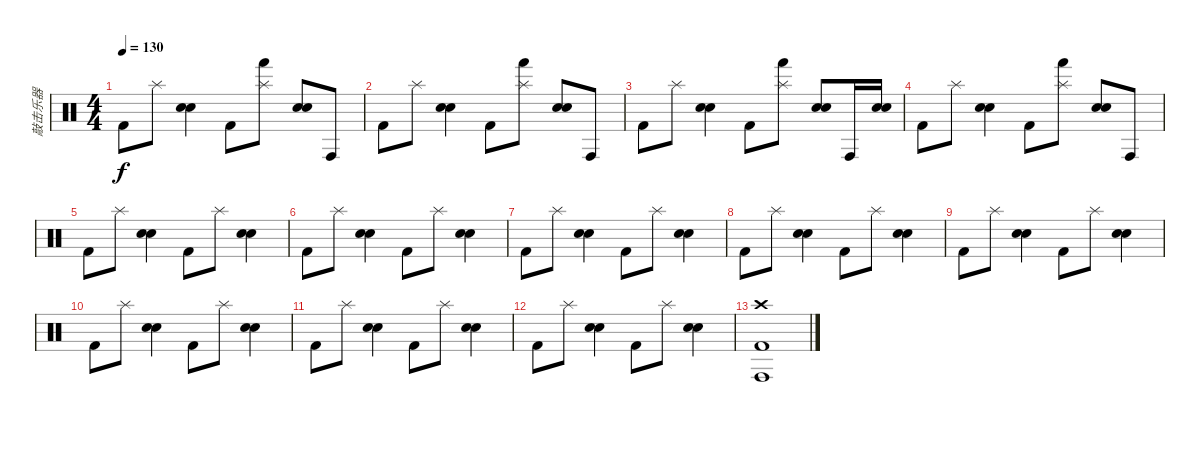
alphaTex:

\track ("敲击乐器" "敲击乐器") {instrument percussion}
\staff {score}
\articulation defaults
\ts (4 4)
\tempo 130
\clef neutral
\ks c "Kick (hit) 2".8{dy f} "Splash (hit)".8
("Electric Snare (hit)" "Snare (hit) 2").4 "Kick (hit) 2".8 ("Splash (hit)" "Hand (hit)").8 ("Electric Snare (hit)" "Snare (hit) 2").8 "Conga high (hit)".8 |
"Kick (hit) 2".8 "Splash (hit)".8 ("Electric Snare (hit)" "Snare (hit) 2").4 "Kick (hit) 2".8 ("Splash (hit)" "Hand (hit)").8 ("Electric Snare (hit)" "Snare (hit) 2").8 "Conga high (hit)".8 |
"Kick (hit) 2".8 "Splash (hit)".8 ("Electric Snare (hit)" "Snare (hit) 2").4 "Kick (hit) 2".8 ("Splash (hit)" "Hand (hit)").8 ("Electric Snare (hit)" "Snare (hit) 2").8 "Conga high (hit)".16 ("Electric Snare (hit)" "Snare (hit) 2").16 |
"Kick (hit) 2".8 "Splash (hit)".8 ("Electric Snare (hit)" "Snare (hit) 2").4 "Kick (hit) 2".8 ("Splash (hit)" "Hand (hit)").8 ("Electric Snare (hit)" "Snare (hit) 2").8 "Conga high (hit)".8 |
"Kick (hit) 2".8 "Splash (hit)".8 ("Electric Snare (hit)" "Snare (hit) 2").4 "Kick (hit) 2".8 "Splash (hit)".8 ("Electric Snare (hit)" "Snare (hit) 2").4 |
"Kick (hit) 2".8 "Splash (hit)".8 ("Electric Snare (hit)" "Snare (hit) 2").4 "Kick (hit) 2".8 "Splash (hit)".8 ("Electric Snare (hit)" "Snare (hit) 2").4 |
"Kick (hit) 2".8 "Splash (hit)".8 ("Electric Snare (hit)" "Snare (hit) 2").4 "Kick (hit) 2".8 "Splash (hit)".8 ("Electric Snare (hit)" "Snare (hit) 2").4 |
"Kick (hit) 2".8 "Splash (hit)".8 ("Electric Snare (hit)" "Snare (hit) 2").4 "Kick (hit) 2".8 "Splash (hit)".8 ("Electric Snare (hit)" "Snare (hit) 2").4 |
"Kick (hit) 2".8 "Splash (hit)".8 ("Electric Snare (hit)" "Snare (hit) 2").4 "Kick (hit) 2".8 "Splash (hit)".8 ("Electric Snare (hit)" "Snare (hit) 2").4 |
"Kick (hit) 2".8 "Splash (hit)".8 ("Electric Snare (hit)" "Snare (hit) 2").4 "Kick (hit) 2".8 "Splash (hit)".8 ("Electric Snare (hit)" "Snare (hit) 2").4 |
"Kick (hit) 2".8 "Splash (hit)".8 ("Electric Snare (hit)" "Snare (hit) 2").4 "Kick (hit) 2".8 "Splash (hit)".8 ("Electric Snare (hit)" "Snare (hit) 2").4 |
"Kick (hit) 2".8 "Splash (hit)".8 ("Electric Snare (hit)" "Snare (hit) 2").4 "Kick (hit) 2".8 "Splash (hit)".8 ("Electric Snare (hit)" "Snare (hit) 2").4 |
("Crash high (hit)" "Kick (hit) 2" "Conga high (hit)").1
